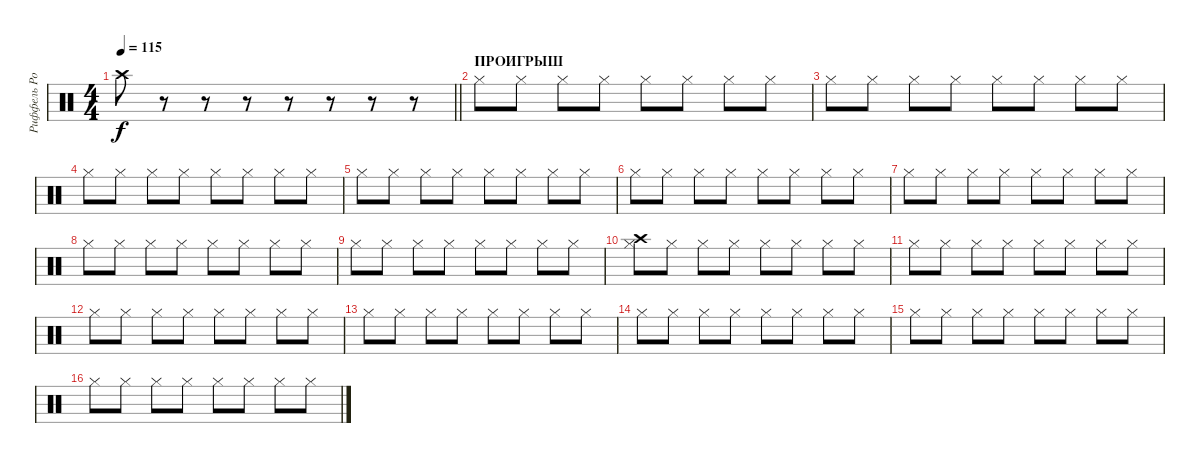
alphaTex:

\track ("Риффель Роман (хэты)" "Риффель Ро") {instrument percussion}
\staff {score}
\articulation defaults
\ts (4 4)
\tempo 115
\clef neutral
\barLineRight lightlight
\ks c "Crash high (hit)".8{dy f}
r.8 r.8 r.8 r.8 r.8 r.8 r.8 |
\section ("" "ПРОИГРЫШ")
"Hi-Hat (closed)".8 "Hi-Hat (closed)".8 "Hi-Hat (closed)".8 "Hi-Hat (closed)".8 "Hi-Hat (closed)".8 "Hi-Hat (closed)".8 "Hi-Hat (closed)".8 "Hi-Hat (closed)".8 |
"Hi-Hat (closed)".8 "Hi-Hat (closed)".8 "Hi-Hat (closed)".8 "Hi-Hat (closed)".8 "Hi-Hat (closed)".8 "Hi-Hat (closed)".8 "Hi-Hat (closed)".8 "Hi-Hat (closed)".8 |
"Hi-Hat (closed)".8 "Hi-Hat (closed)".8 "Hi-Hat (closed)".8 "Hi-Hat (closed)".8 "Hi-Hat (closed)".8 "Hi-Hat (closed)".8 "Hi-Hat (closed)".8 "Hi-Hat (closed)".8 |
"Hi-Hat (closed)".8 "Hi-Hat (closed)".8 "Hi-Hat (closed)".8 "Hi-Hat (closed)".8 "Hi-Hat (closed)".8 "Hi-Hat (closed)".8 "Hi-Hat (closed)".8 "Hi-Hat (closed)".8 |
"Hi-Hat (closed)".8 "Hi-Hat (closed)".8 "Hi-Hat (closed)".8 "Hi-Hat (closed)".8 "Hi-Hat (closed)".8 "Hi-Hat (closed)".8 "Hi-Hat (closed)".8 "Hi-Hat (closed)".8 |
"Hi-Hat (closed)".8 "Hi-Hat (closed)".8 "Hi-Hat (closed)".8 "Hi-Hat (closed)".8 "Hi-Hat (closed)".8 "Hi-Hat (closed)".8 "Hi-Hat (closed)".8 "Hi-Hat (closed)".8 |
"Hi-Hat (closed)".8 "Hi-Hat (closed)".8 "Hi-Hat (closed)".8 "Hi-Hat (closed)".8 "Hi-Hat (closed)".8 "Hi-Hat (closed)".8 "Hi-Hat (closed)".8 "Hi-Hat (closed)".8 |
"Hi-Hat (closed)".8 "Hi-Hat (closed)".8 "Hi-Hat (closed)".8 "Hi-Hat (closed)".8 "Hi-Hat (closed)".8 "Hi-Hat (closed)".8 "Hi-Hat (closed)".8 "Hi-Hat (closed)".8 |
("Crash high (hit)" "Hi-Hat (closed)").8 "Hi-Hat (closed)".8 "Hi-Hat (closed)".8 "Hi-Hat (closed)".8 "Hi-Hat (closed)".8 "Hi-Hat (closed)".8 "Hi-Hat (closed)".8 "Hi-Hat (closed)".8 |
"Hi-Hat (closed)".8 "Hi-Hat (closed)".8 "Hi-Hat (closed)".8 "Hi-Hat (closed)".8 "Hi-Hat (closed)".8 "Hi-Hat (closed)".8 "Hi-Hat (closed)".8 "Hi-Hat (closed)".8 |
"Hi-Hat (closed)".8 "Hi-Hat (closed)".8 "Hi-Hat (closed)".8 "Hi-Hat (closed)".8 "Hi-Hat (closed)".8 "Hi-Hat (closed)".8 "Hi-Hat (closed)".8 "Hi-Hat (closed)".8 |
"Hi-Hat (closed)".8 "Hi-Hat (closed)".8 "Hi-Hat (closed)".8 "Hi-Hat (closed)".8 "Hi-Hat (closed)".8 "Hi-Hat (closed)".8 "Hi-Hat (closed)".8 "Hi-Hat (closed)".8 |
"Hi-Hat (closed)".8 "Hi-Hat (closed)".8 "Hi-Hat (closed)".8 "Hi-Hat (closed)".8 "Hi-Hat (closed)".8 "Hi-Hat (closed)".8 "Hi-Hat (closed)".8 "Hi-Hat (closed)".8 |
"Hi-Hat (closed)".8 "Hi-Hat (closed)".8 "Hi-Hat (closed)".8 "Hi-Hat (closed)".8 "Hi-Hat (closed)".8 "Hi-Hat (closed)".8 "Hi-Hat (closed)".8 "Hi-Hat (closed)".8 |
"Hi-Hat (closed)".8 "Hi-Hat (closed)".8 "Hi-Hat (closed)".8 "Hi-Hat (closed)".8 "Hi-Hat (closed)".8 "Hi-Hat (closed)".8 "Hi-Hat (closed)".8 "Hi-Hat (closed)".8
